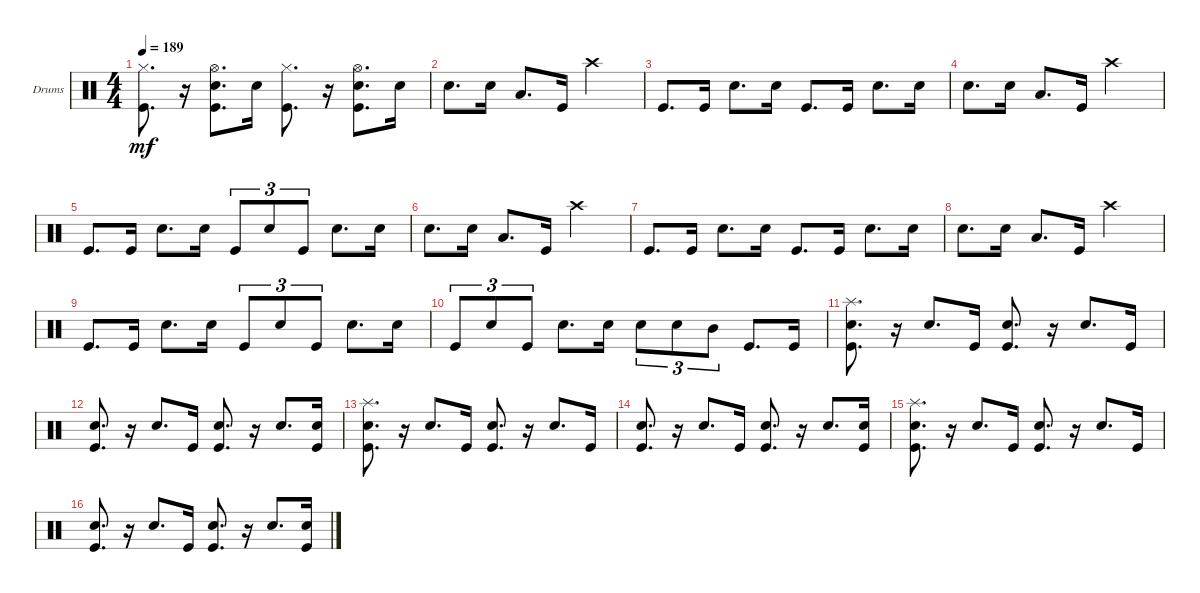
\defaultSystemsLayout 4
\bracketExtendMode groupsimilarinstruments
\firstSystemTrackNameOrientation horizontal
\otherSystemsTrackNameOrientation horizontal
\track ("Drumkit" "Drums") {instrument percussion}
\staff {score}
\articulation defaults
\ts (4 4)
\tempo 189
\clef neutral
\scale
0.333333
\ks c
("Kick (hit)" "Hi-Hat (closed)").8{d dy mf} r.16 ("Snare (hit) 2" "Kick (hit)" "Hi-Hat (open)").8{d} "Snare (hit) 2".16 ("Kick (hit)" "Hi-Hat (closed)").8{d} r.16 ("Snare (hit) 2" "Kick (hit)" "Hi-Hat (open)").8{d} "Snare (hit) 2".16 |
\scale
0.333333 "Snare (hit) 2".8{d} "Snare (hit) 2".16 "Low Tom (hit)".8{d} "Kick (hit)".16 "Crash high (hit)".2 |
\scale
0.333333 "Kick (hit)".8{d} "Kick (hit)".16 "Snare (hit) 2".8{d} "Snare (hit) 2".16 "Kick (hit)".8{d} "Kick (hit)".16 "Snare (hit) 2".8{d} "Snare (hit) 2".16 |
\scale
0.333333 "Snare (hit) 2".8{d} "Snare (hit) 2".16 "Low Tom (hit)".8{d} "Kick (hit)".16 "Crash high (hit)".2 |
\scale
0.333333 "Kick (hit)".8{d} "Kick (hit)".16 "Snare (hit) 2".8{d} "Snare (hit) 2".16 "Kick (hit)".8{tu (3 2)} "Snare (hit) 2".8{tu (3 2)} "Kick (hit)".8{tu (3 2)} "Snare (hit) 2".8{d} "Snare (hit) 2".16 |
\scale
0.333333 "Snare (hit) 2".8{d} "Snare (hit) 2".16 "Low Tom (hit)".8{d} "Kick (hit)".16 "Crash high (hit)".2 |
\scale
0.333333 "Kick (hit)".8{d} "Kick (hit)".16 "Snare (hit) 2".8{d} "Snare (hit) 2".16 "Kick (hit)".8{d} "Kick (hit)".16 "Snare (hit) 2".8{d} "Snare (hit) 2".16 |
\scale
0.333333 "Snare (hit) 2".8{d} "Snare (hit) 2".16 "Low Tom (hit)".8{d} "Kick (hit)".16 "Crash high (hit)".2 |
\scale
0.333333 "Kick (hit)".8{d} "Kick (hit)".16 "Snare (hit) 2".8{d} "Snare (hit) 2".16 "Kick (hit)".8{tu (3 2)} "Snare (hit) 2".8{tu (3 2)} "Kick (hit)".8{tu (3 2)} "Snare (hit) 2".8{d} "Snare (hit) 2".16 |
\scale
0.333333 "Kick (hit)".8{tu (3 2)} "Snare (hit) 2".8{tu (3 2)} "Kick (hit)".8{tu (3 2)} "Snare (hit) 2".8{d} "Snare (hit) 2".16 "Snare (hit) 2".8{tu (3 2)} "Snare (hit) 2".8{tu (3 2)} "Mid Tom (hit)".8{tu (3 2)} "Kick (hit)".8{d} "Kick (hit)".16 |
\scale
0.333333 ("Kick (hit)" "Snare (hit) 2" "Splash (hit)").8{d} r.16 "Snare (hit) 2".8{d} "Kick (hit)".16 ("Kick (hit)" "Snare (hit) 2").8{d} r.16 "Snare (hit) 2".8{d} "Kick (hit)".16 |
\scale
0.333333 ("Kick (hit)" "Snare (hit) 2").8{d} r.16 "Snare (hit) 2".8{d} "Kick (hit)".16 ("Kick (hit)" "Snare (hit) 2").8{d} r.16 "Snare (hit) 2".8{d} ("Kick (hit)" "Snare (hit) 2").16 |
\scale
0.333333 ("Kick (hit)" "Snare (hit) 2" "Splash (hit)").8{d} r.16 "Snare (hit) 2".8{d} "Kick (hit)".16 ("Kick (hit)" "Snare (hit) 2").8{d} r.16 "Snare (hit) 2".8{d} "Kick (hit)".16 |
\scale
0.333333 ("Kick (hit)" "Snare (hit) 2").8{d} r.16 "Snare (hit) 2".8{d} "Kick (hit)".16 ("Kick (hit)" "Snare (hit) 2").8{d} r.16 "Snare (hit) 2".8{d} ("Kick (hit)" "Snare (hit) 2").16 |
\scale
0.333333 ("Kick (hit)" "Snare (hit) 2" "Splash (hit)").8{d} r.16 "Snare (hit) 2".8{d} "Kick (hit)".16 ("Kick (hit)" "Snare (hit) 2").8{d} r.16 "Snare (hit) 2".8{d} "Kick (hit)".16 |
\scale
0.333333 ("Kick (hit)" "Snare (hit) 2").8{d} r.16 "Snare (hit) 2".8{d} "Kick (hit)".16 ("Kick (hit)" "Snare (hit) 2").8{d} r.16 "Snare (hit) 2".8{d} ("Kick (hit)" "Snare (hit) 2").16
